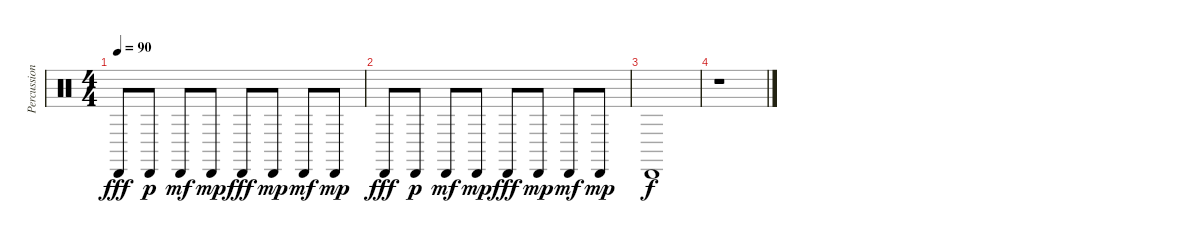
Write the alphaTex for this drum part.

\track ("Percussion" "Percussion") {instrument percussion}
\staff {score}
\articulation defaults
\ts (4 4)
\tempo 90
\clef neutral
\ks c "Cabasa (hit)".8{dy fff} "Cabasa (hit)".8{dy p} "Cabasa (hit)".8{dy mf} "Cabasa (hit)".8{dy mp} "Cabasa (hit)".8{dy fff} "Cabasa (hit)".8{dy mp} "Cabasa (hit)".8{dy mf} "Cabasa (hit)".8{dy mp}
|
"Cabasa (hit)".8{dy fff} "Cabasa (hit)".8{dy p} "Cabasa (hit)".8{dy mf} "Cabasa (hit)".8{dy mp} "Cabasa (hit)".8{dy fff} "Cabasa (hit)".8{dy mp} "Cabasa (hit)".8{dy mf} "Cabasa (hit)".8{dy mp} |
"Cabasa (hit)".1{dy f} |
r.1
